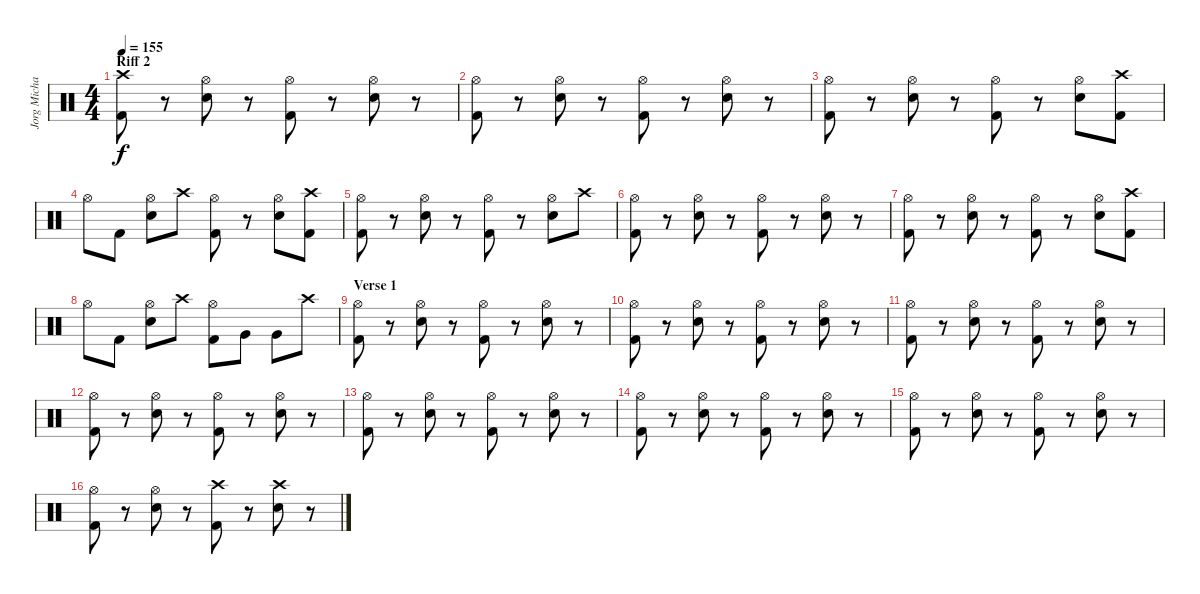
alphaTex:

\track ("Jorg Michael - Batteria" "Jorg Micha") {instrument percussion}
\staff {score}
\articulation defaults
\ts (4 4)
\section ("" "Riff 2")
\tempo 155
\clef neutral
\ks c
("Kick (hit) 2" "Crash high (hit)").8{dy f} r.8 ("Snare (hit) 2" "Hi-Hat (open)").8 r.8 ("Kick (hit) 2" "Hi-Hat (open)").8 r.8 ("Snare (hit) 2" "Hi-Hat (open)").8 r.8 |
("Kick (hit) 2" "Hi-Hat (open)").8 r.8 ("Snare (hit) 2" "Hi-Hat (open)").8 r.8 ("Kick (hit) 2" "Hi-Hat (open)").8 r.8 ("Snare (hit) 2" "Hi-Hat (open)").8 r.8 |
("Kick (hit) 2" "Hi-Hat (open)").8 r.8 ("Snare (hit) 2" "Hi-Hat (open)").8 r.8 ("Kick (hit) 2" "Hi-Hat (open)").8 r.8 ("Snare (hit) 2" "Hi-Hat (open)").8 ("Kick (hit) 2" "Crash high (hit)").8 |
"Hi-Hat (open)".8 "Kick (hit) 2".8 ("Snare (hit) 2" "Hi-Hat (open)").8 "Crash high (hit)".8 ("Kick (hit) 2" "Hi-Hat (open)").8 r.8 ("Snare (hit) 2" "Hi-Hat (open)").8 ("Kick (hit) 2" "Crash high (hit)").8 |
("Kick (hit) 2" "Hi-Hat (open)").8 r.8 ("Snare (hit) 2" "Hi-Hat (open)").8 r.8 ("Kick (hit) 2" "Hi-Hat (open)").8 r.8 ("Snare (hit) 2" "Hi-Hat (open)").8 "Crash high (hit)".8 |
("Kick (hit) 2" "Hi-Hat (open)").8 r.8 ("Snare (hit) 2" "Hi-Hat (open)").8 r.8 ("Kick (hit) 2" "Hi-Hat (open)").8 r.8 ("Snare (hit) 2" "Hi-Hat (open)").8 r.8 |
("Kick (hit) 2" "Hi-Hat (open)").8 r.8 ("Snare (hit) 2" "Hi-Hat (open)").8 r.8 ("Kick (hit) 2" "Hi-Hat (open)").8 r.8 ("Snare (hit) 2" "Hi-Hat (open)").8 ("Kick (hit) 2" "Crash high (hit)").8 |
"Hi-Hat (open)".8 "Kick (hit) 2".8 ("Snare (hit) 2" "Hi-Hat (open)").8 "Crash high (hit)".8 ("Kick (hit) 2" "Hi-Hat (open)").8 "Very Low Tom (hit)".8 "Very Low Tom (hit)".8 "Crash high (hit)".8 |
\section ("" "Verse 1")
("Kick (hit) 2" "Hi-Hat (open)").8 r.8 ("Snare (hit) 2" "Hi-Hat (open)").8 r.8 ("Kick (hit) 2" "Hi-Hat (open)").8 r.8 ("Snare (hit) 2" "Hi-Hat (open)").8 r.8 |
("Kick (hit) 2" "Hi-Hat (open)").8 r.8 ("Snare (hit) 2" "Hi-Hat (open)").8 r.8 ("Kick (hit) 2" "Hi-Hat (open)").8 r.8 ("Snare (hit) 2" "Hi-Hat (open)").8 r.8 |
("Kick (hit) 2" "Hi-Hat (open)").8 r.8 ("Snare (hit) 2" "Hi-Hat (open)").8 r.8 ("Kick (hit) 2" "Hi-Hat (open)").8 r.8 ("Snare (hit) 2" "Hi-Hat (open)").8 r.8 |
("Kick (hit) 2" "Hi-Hat (open)").8 r.8 ("Snare (hit) 2" "Hi-Hat (open)").8 r.8 ("Kick (hit) 2" "Hi-Hat (open)").8 r.8 ("Snare (hit) 2" "Hi-Hat (open)").8 r.8 |
("Kick (hit) 2" "Hi-Hat (open)").8 r.8 ("Snare (hit) 2" "Hi-Hat (open)").8 r.8 ("Kick (hit) 2" "Hi-Hat (open)").8 r.8 ("Snare (hit) 2" "Hi-Hat (open)").8 r.8 |
("Kick (hit) 2" "Hi-Hat (open)").8 r.8 ("Snare (hit) 2" "Hi-Hat (open)").8 r.8 ("Kick (hit) 2" "Hi-Hat (open)").8 r.8 ("Snare (hit) 2" "Hi-Hat (open)").8 r.8 |
("Kick (hit) 2" "Hi-Hat (open)").8 r.8 ("Snare (hit) 2" "Hi-Hat (open)").8 r.8 ("Kick (hit) 2" "Hi-Hat (open)").8 r.8 ("Snare (hit) 2" "Hi-Hat (open)").8 r.8 |
("Kick (hit) 2" "Hi-Hat (open)").8 r.8 ("Snare (hit) 2" "Hi-Hat (open)").8 r.8 ("Kick (hit) 2" "Crash high (hit)").8 r.8 ("Snare (hit) 2" "Crash high (hit)").8 r.8
